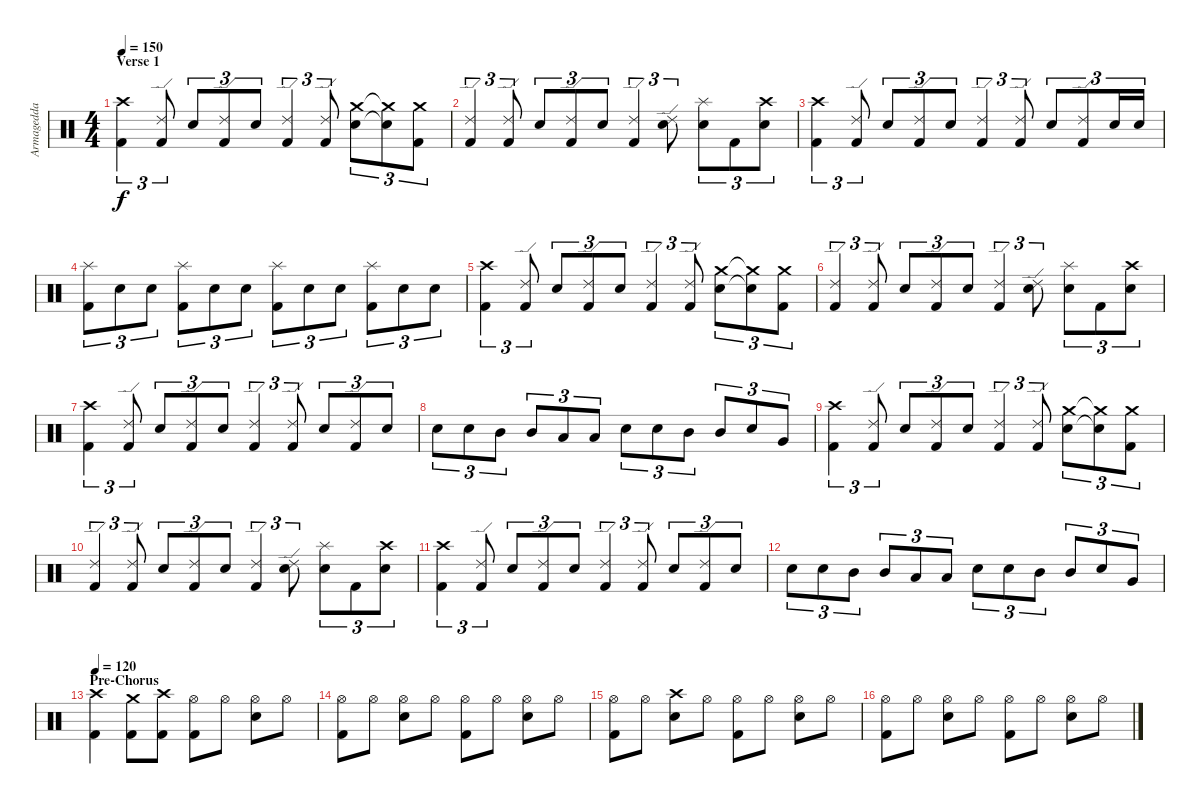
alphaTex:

\track ("Armagedda" "Armagedda") {instrument percussion}
\staff {score}
\articulation defaults
\ts (4 4)
\section ("" "Verse 1 ")
\tempo 150
\clef neutral
\ks c
("Crash high (hit)" "Kick (hit) 2").4{tu (3 2) dy f} ("Ride (edge) 2" "Kick (hit) 2").8{tu (3 2)} "Electric Snare (hit)".8{tu (3 2)} ("Ride (edge) 2" "Kick (hit) 2").8{tu (3 2)} "Electric Snare (hit)".8{tu (3 2)} ("Ride (edge) 2" "Kick (hit) 2").4{tu (3 2)} ("Ride (edge) 2" "Kick (hit) 2").8{tu (3 2)} ("Crash medium (hit)" "Electric Snare (hit)").8{tu (3 2)} ("Crash medium (hit)"{t} "Snare (hit)"{t}).8{tu (3 2)} ("Crash medium (hit)" "Kick (hit) 2").8{tu (3 2)} |
("Ride (edge) 2" "Kick (hit) 2").4{tu (3 2)} ("Ride (edge) 2" "Kick (hit) 2").8{tu (3 2)} "Electric Snare (hit)".8{tu (3 2)} ("Ride (edge) 2" "Kick (hit) 2").8{tu (3 2)} "Electric Snare (hit)".8{tu (3 2)} ("Ride (edge) 2" "Kick (hit) 2").4{tu (3 2)} ("Ride (edge) 2" "Electric Snare (hit)").8{tu (3 2)} ("Splash (hit)" "Electric Snare (hit)").8{tu (3 2)} "Kick (hit) 2".8{tu (3 2)} ("Crash high (hit)" "Electric Snare (hit)").8{tu (3 2)} |
("Crash high (hit)" "Kick (hit) 2").4{tu (3 2)} ("Ride (edge) 2" "Kick (hit) 2").8{tu (3 2)} "Electric Snare (hit)".8{tu (3 2)} ("Ride (edge) 2" "Kick (hit) 2").8{tu (3 2)} "Electric Snare (hit)".8{tu (3 2)} ("Ride (edge) 2" "Kick (hit) 2").4{tu (3 2)} ("Ride (edge) 2" "Kick (hit) 2").8{tu (3 2)} "Electric Snare (hit)".8{tu (3 2)} ("Ride (edge) 2" "Kick (hit) 2").8{tu (3 2)} "Electric Snare (hit)".16{tu (3 2)} "Electric Snare (hit)".16{tu (3 2)} |
("Splash (hit)" "Kick (hit) 2").8{tu (3 2)} "Electric Snare (hit)".8{tu (3 2)} "Electric Snare (hit)".8{tu (3 2)} ("Splash (hit)" "Kick (hit) 2").8{tu (3 2)} "Electric Snare (hit)".8{tu (3 2)} "Electric Snare (hit)".8{tu (3 2)} ("Splash (hit)" "Kick (hit) 2").8{tu (3 2)} "Electric Snare (hit)".8{tu (3 2)} "Electric Snare (hit)".8{tu (3 2)} ("Splash (hit)" "Kick (hit) 2").8{tu (3 2)} "Electric Snare (hit)".8{tu (3 2)} "Electric Snare (hit)".8{tu (3 2)} |
("Crash high (hit)" "Kick (hit) 2").4{tu (3 2)} ("Ride (edge) 2" "Kick (hit) 2").8{tu (3 2)} "Electric Snare (hit)".8{tu (3 2)} ("Ride (edge) 2" "Kick (hit) 2").8{tu (3 2)} "Electric Snare (hit)".8{tu (3 2)} ("Ride (edge) 2" "Kick (hit) 2").4{tu (3 2)} ("Ride (edge) 2" "Kick (hit) 2").8{tu (3 2)} ("Crash medium (hit)" "Electric Snare (hit)").8{tu (3 2)} ("Crash medium (hit)"{t} "Snare (hit)"{t}).8{tu (3 2)} ("Crash medium (hit)" "Kick (hit) 2").8{tu (3 2)} |
("Ride (edge) 2" "Kick (hit) 2").4{tu (3 2)} ("Ride (edge) 2" "Kick (hit) 2").8{tu (3 2)} "Electric Snare (hit)".8{tu (3 2)} ("Ride (edge) 2" "Kick (hit) 2").8{tu (3 2)} "Electric Snare (hit)".8{tu (3 2)} ("Ride (edge) 2" "Kick (hit) 2").4{tu (3 2)} ("Ride (edge) 2" "Electric Snare (hit)").8{tu (3 2)} ("Splash (hit)" "Electric Snare (hit)").8{tu (3 2)} "Kick (hit) 2".8{tu (3 2)} ("Crash high (hit)" "Electric Snare (hit)").8{tu (3 2)} |
("Crash high (hit)" "Kick (hit) 2").4{tu (3 2)} ("Ride (edge) 2" "Kick (hit) 2").8{tu (3 2)} "Electric Snare (hit)".8{tu (3 2)} ("Ride (edge) 2" "Kick (hit) 2").8{tu (3 2)} "Electric Snare (hit)".8{tu (3 2)} ("Ride (edge) 2" "Kick (hit) 2").4{tu (3 2)} ("Ride (edge) 2" "Kick (hit) 2").8{tu (3 2)} "Electric Snare (hit)".8{tu (3 2)} ("Ride (edge) 2" "Kick (hit) 2").8{tu (3 2)} "Electric Snare (hit)".8{tu (3 2)} |
"Electric Snare (hit)".8{tu (3 2)} "Electric Snare (hit)".8{tu (3 2)} "Mid Tom (hit)".8{tu (3 2)} "Mid Tom (hit)".8{tu (3 2)} "Low Tom (hit)".8{tu (3 2)} "Low Tom (hit)".8{tu (3 2)} "Electric Snare (hit)".8{tu (3 2)} "Electric Snare (hit)".8{tu (3 2)} "Mid Tom (hit)".8{tu (3 2)} "Mid Tom (hit)".8{tu (3 2)} "Electric Snare (hit)".8{tu (3 2)} "Very Low Tom (hit)".8{tu (3 2)} |
("Crash high (hit)" "Kick (hit) 2").4{tu (3 2)} ("Ride (edge) 2" "Kick (hit) 2").8{tu (3 2)} "Electric Snare (hit)".8{tu (3 2)} ("Ride (edge) 2" "Kick (hit) 2").8{tu (3 2)} "Electric Snare (hit)".8{tu (3 2)} ("Ride (edge) 2" "Kick (hit) 2").4{tu (3 2)} ("Ride (edge) 2" "Kick (hit) 2").8{tu (3 2)} ("Crash medium (hit)" "Electric Snare (hit)").8{tu (3 2)} ("Crash medium (hit)"{t} "Snare (hit)"{t}).8{tu (3 2)} ("Crash medium (hit)" "Kick (hit) 2").8{tu (3 2)} |
("Ride (edge) 2" "Kick (hit) 2").4{tu (3 2)} ("Ride (edge) 2" "Kick (hit) 2").8{tu (3 2)} "Electric Snare (hit)".8{tu (3 2)} ("Ride (edge) 2" "Kick (hit) 2").8{tu (3 2)} "Electric Snare (hit)".8{tu (3 2)} ("Ride (edge) 2" "Kick (hit) 2").4{tu (3 2)} ("Ride (edge) 2" "Electric Snare (hit)").8{tu (3 2)} ("Splash (hit)" "Electric Snare (hit)").8{tu (3 2)} "Kick (hit) 2".8{tu (3 2)} ("Crash high (hit)" "Electric Snare (hit)").8{tu (3 2)} |
("Crash high (hit)" "Kick (hit) 2").4{tu (3 2)} ("Ride (edge) 2" "Kick (hit) 2").8{tu (3 2)} "Electric Snare (hit)".8{tu (3 2)} ("Ride (edge) 2" "Kick (hit) 2").8{tu (3 2)} "Electric Snare (hit)".8{tu (3 2)} ("Ride (edge) 2" "Kick (hit) 2").4{tu (3 2)} ("Ride (edge) 2" "Kick (hit) 2").8{tu (3 2)} "Electric Snare (hit)".8{tu (3 2)} ("Ride (edge) 2" "Kick (hit) 2").8{tu (3 2)} "Electric Snare (hit)".8{tu (3 2)} |
"Electric Snare (hit)".8{tu (3 2)} "Electric Snare (hit)".8{tu (3 2)} "Mid Tom (hit)".8{tu (3 2)} "Mid Tom (hit)".8{tu (3 2)} "Low Tom (hit)".8{tu (3 2)} "Low Tom (hit)".8{tu (3 2)} "Electric Snare (hit)".8{tu (3 2)} "Electric Snare (hit)".8{tu (3 2)} "Mid Tom (hit)".8{tu (3 2)} "Mid Tom (hit)".8{tu (3 2)} "Electric Snare (hit)".8{tu (3 2)} "Very Low Tom (hit)".8{tu (3 2)} |
\section ("" "Pre-Chorus")
\tempo 120
("Crash high (hit)" "Kick (hit) 2").4 ("Crash medium (hit)" "Kick (hit) 2").8 ("Crash high (hit)" "Kick (hit) 2").8 ("Hi-Hat (open)" "Kick (hit) 2").8 "Hi-Hat (open)".8 ("Hi-Hat (open)" "Electric Snare (hit)").8 "Hi-Hat (open)".8 |
("Hi-Hat (open)" "Kick (hit) 2").8 "Hi-Hat (open)".8 ("Hi-Hat (open)" "Electric Snare (hit)").8 "Hi-Hat (open)".8 ("Hi-Hat (open)" "Kick (hit) 2").8 "Hi-Hat (open)".8 ("Hi-Hat (open)" "Electric Snare (hit)").8 "Hi-Hat (open)".8 |
("Hi-Hat (open)" "Kick (hit) 2").8 "Hi-Hat (open)".8 ("Crash high (hit)" "Electric Snare (hit)").8 "Hi-Hat (open)".8 ("Hi-Hat (open)" "Kick (hit) 2").8 "Hi-Hat (open)".8 ("Hi-Hat (open)" "Electric Snare (hit)").8 "Hi-Hat (open)".8 |
("Hi-Hat (open)" "Kick (hit) 2").8 "Hi-Hat (open)".8 ("Hi-Hat (open)" "Electric Snare (hit)").8 "Hi-Hat (open)".8 ("Hi-Hat (open)" "Kick (hit) 2").8 "Hi-Hat (open)".8 ("Hi-Hat (open)" "Electric Snare (hit)").8 "Hi-Hat (open)".8
